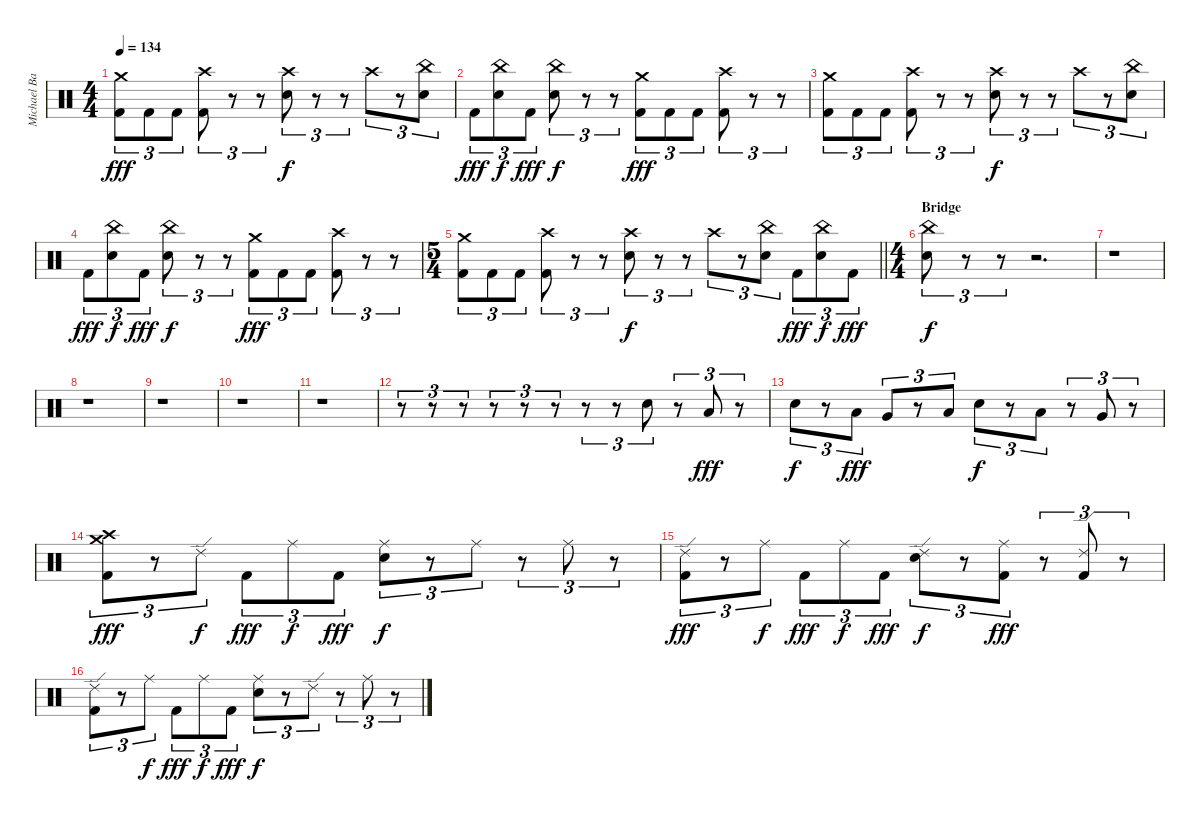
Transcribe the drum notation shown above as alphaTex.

\track ("Michael Bartlett " "Michael Ba") {instrument percussion}
\staff {score}
\articulation defaults
\ts (4 4)
\tempo 134
\clef neutral
\ks c
("Crash medium (hit)" "Kick (hit) 2").8{tu (3 2) dy fff} "Kick (hit) 2".8{tu (3 2)} "Kick (hit) 2".8{tu (3 2)} ("Crash high (hit)" "Kick (hit) 2").8{tu (3 2)} r.8{tu (3 2)} r.8{tu (3 2)} ("Crash high (hit)" "Electric Snare (hit)").8{tu (3 2) dy f} r.8{tu (3 2)} r.8{tu (3 2)} "Crash high (hit)".8{tu (3 2)} r.8{tu (3 2)} ("China (hit)" "Electric Snare (hit)").8{tu (3 2)} |
"Kick (hit) 2".8{tu (3 2) dy fff} ("China (hit)" "Electric Snare (hit)").8{tu (3 2) dy f} "Kick (hit) 2".8{tu (3 2) dy fff} ("China (hit)" "Electric Snare (hit)").8{tu (3 2) dy f} r.8{tu (3 2)} r.8{tu (3 2)} ("Crash medium (hit)" "Kick (hit) 2").8{tu (3 2) dy fff} "Kick (hit) 2".8{tu (3 2)} "Kick (hit) 2".8{tu (3 2)} ("Crash high (hit)" "Kick (hit) 2").8{tu (3 2)} r.8{tu (3 2)} r.8{tu (3 2)} |
("Crash medium (hit)" "Kick (hit) 2").8{tu (3 2)} "Kick (hit) 2".8{tu (3 2)} "Kick (hit) 2".8{tu (3 2)} ("Crash high (hit)" "Kick (hit) 2").8{tu (3 2)} r.8{tu (3 2)} r.8{tu (3 2)} ("Crash high (hit)" "Electric Snare (hit)").8{tu (3 2) dy f} r.8{tu (3 2)} r.8{tu (3 2)} "Crash high (hit)".8{tu (3 2)} r.8{tu (3 2)} ("China (hit)" "Electric Snare (hit)").8{tu (3 2)} |
"Kick (hit) 2".8{tu (3 2) dy fff} ("China (hit)" "Electric Snare (hit)").8{tu (3 2) dy f} "Kick (hit) 2".8{tu (3 2) dy fff} ("China (hit)" "Electric Snare (hit)").8{tu (3 2) dy f} r.8{tu (3 2)} r.8{tu (3 2)} ("Crash medium (hit)" "Kick (hit) 2").8{tu (3 2) dy fff} "Kick (hit) 2".8{tu (3 2)} "Kick (hit) 2".8{tu (3 2)} ("Crash high (hit)" "Kick (hit) 2").8{tu (3 2)} r.8{tu (3 2)} r.8{tu (3 2)} |
\ts (5 4)
\barLineRight lightlight
("Crash medium (hit)" "Kick (hit) 2").8{tu (3 2)} "Kick (hit) 2".8{tu (3 2)} "Kick (hit) 2".8{tu (3 2)} ("Crash high (hit)" "Kick (hit) 2").8{tu (3 2)} r.8{tu (3 2)} r.8{tu (3 2)} ("Crash high (hit)" "Electric Snare (hit)").8{tu (3 2) dy f} r.8{tu (3 2)} r.8{tu (3 2)} "Crash high (hit)".8{tu (3 2)} r.8{tu (3 2)} ("China (hit)" "Electric Snare (hit)").8{tu (3 2)} "Kick (hit) 2".8{tu (3 2) dy fff} ("China (hit)" "Electric Snare (hit)").8{tu (3 2) dy f} "Kick (hit) 2".8{tu (3 2) dy fff} |
\ts (4 4)
\section ("" "Bridge")
("China (hit)" "Electric Snare (hit)").8{tu (3 2) dy f} r.8{tu (3 2)} r.8{tu (3 2)} r.2{d} |
r.1 |
r.1 |
r.1 |
r.1 |
r.1 |
r.8{tu (3 2)} r.8{tu (3 2)} r.8{tu (3 2)} r.8{tu (3 2)} r.8{tu (3 2)} r.8{tu (3 2)} r.8{tu (3 2)} r.8{tu (3 2)} "Electric Snare (hit)".8{tu (3 2)} r.8{tu (3 2)} "Low Tom (hit)".8{tu (3 2) dy fff} r.8{tu (3 2)} |
"Electric Snare (hit)".8{tu (3 2) dy f} r.8{tu (3 2)} "Low Tom (hit)".8{tu (3 2) dy fff} "Very Low Tom (hit)".8{tu (3 2)} r.8{tu (3 2)} "Low Tom (hit)".8{tu (3 2)} "Electric Snare (hit)".8{tu (3 2) dy f} r.8{tu (3 2)} "Low Tom (hit)".8{tu (3 2)} r.8{tu (3 2)} "Very Low Tom (hit)".8{tu (3 2)} r.8{tu (3 2)} |
("Crash medium (hit)" "Crash high (hit)" "Kick (hit) 2").8{tu (3 2) dy fff} r.8{tu (3 2)} "Ride (edge) 2".8{tu (3 2) dy f} "Kick (hit) 2".8{tu (3 2) dy fff} "Ride (middle)".8{tu (3 2) dy f} "Kick (hit) 2".8{tu (3 2) dy fff} ("Ride (middle)" "Electric Snare (hit)").8{tu (3 2) dy f} r.8{tu (3 2)} "Ride (middle)".8{tu (3 2)} r.8{tu (3 2)} "Ride (middle)".8{tu (3 2)} r.8{tu (3 2)} |
("Ride (edge) 2" "Kick (hit) 2").8{tu (3 2) dy fff} r.8{tu (3 2)} "Ride (middle)".8{tu (3 2) dy f} "Kick (hit) 2".8{tu (3 2) dy fff} "Ride (middle)".8{tu (3 2) dy f} "Kick (hit) 2".8{tu (3 2) dy fff} ("Ride (edge) 2" "Electric Snare (hit)").8{tu (3 2) dy f} r.8{tu (3 2)} ("Ride (middle)" "Kick (hit) 2").8{tu (3 2) dy fff} r.8{tu (3 2)} ("Ride (edge) 2" "Kick (hit) 2").8{tu (3 2)} r.8{tu (3 2)} |
("Ride (edge) 2" "Kick (hit) 2").8{tu (3 2)} r.8{tu (3 2)} "Ride (middle)".8{tu (3 2) dy f} "Kick (hit) 2".8{tu (3 2) dy fff} "Ride (middle)".8{tu (3 2) dy f} "Kick (hit) 2".8{tu (3 2) dy fff} ("Ride (middle)" "Electric Snare (hit)").8{tu (3 2) dy f} r.8{tu (3 2)} "Ride (edge) 2".8{tu (3 2)} r.8{tu (3 2)} "Ride (middle)".8{tu (3 2)} r.8{tu (3 2)}
